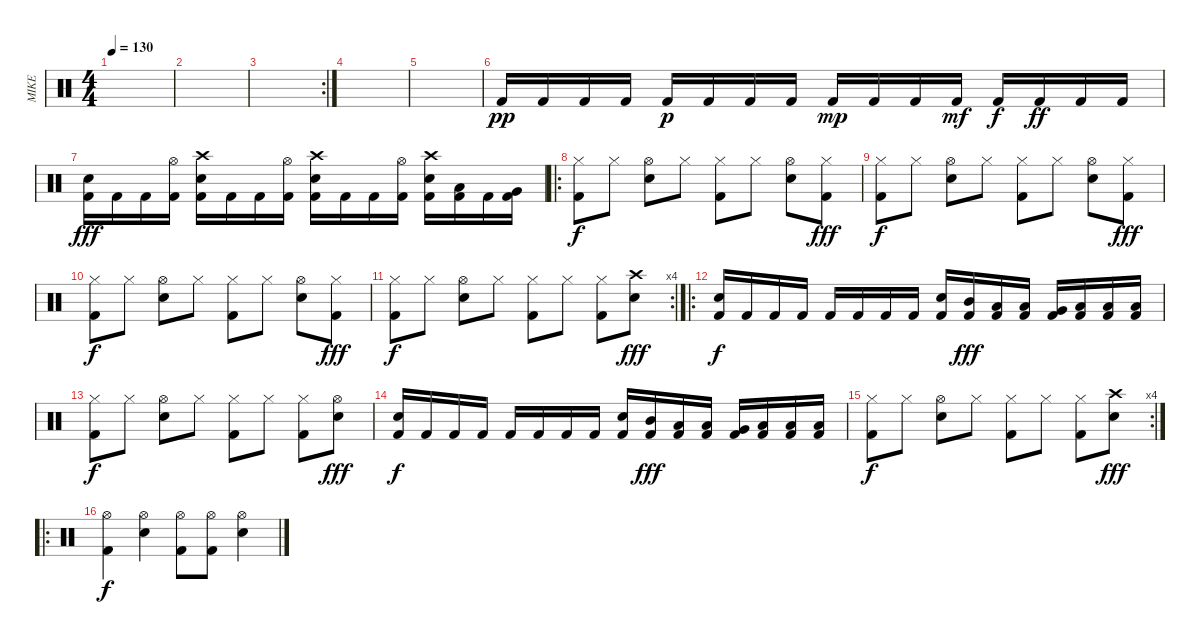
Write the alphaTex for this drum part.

\track ("MIKE" "MIKE") {instrument percussion}
\staff {score}
\articulation defaults
\ts (4 4)
\tempo 130
\clef neutral
\ks c
|
|
\rc 2
|
|
|
"Kick (hit) 2".16{dy pp} "Kick (hit) 2".16 "Kick (hit) 2".16 "Kick (hit) 2".16 "Kick (hit) 2".16{dy p} "Kick (hit) 2".16 "Kick (hit) 2".16 "Kick (hit) 2".16 "Kick (hit) 2".16{dy mp} "Kick (hit) 2".16 "Kick (hit) 2".16 "Kick (hit) 2".16{dy mf} "Kick (hit) 2".16{dy f} "Kick (hit) 2".16{dy ff} "Kick (hit) 2".16 "Kick (hit) 2".16 |
("Electric Snare (hit)" "Kick (hit) 2").16{dy fff} "Kick (hit) 2".16 "Kick (hit) 2".16 ("Hi-Hat (open)" "Kick (hit) 2").16 ("Crash high (hit)" "Electric Snare (hit)" "Kick (hit) 2").16 "Kick (hit) 2".16 "Kick (hit) 2".16 ("Hi-Hat (open)" "Kick (hit) 2").16 ("Crash high (hit)" "Electric Snare (hit)" "Kick (hit) 2").16 "Kick (hit) 2".16 "Kick (hit) 2".16 ("Hi-Hat (open)" "Kick (hit) 2").16 ("Crash high (hit)" "Electric Snare (hit)" "Kick (hit) 2").16 ("Low Tom (hit)" "Kick (hit) 2").16 "Kick (hit) 2".16 ("Very Low Tom (hit)" "Kick (hit) 2").16 |
\ro
("Hi-Hat (closed)" "Kick (hit) 2").8{dy f} "Hi-Hat (closed)".8 ("Hi-Hat (open)" "Snare (hit) 2").8 "Hi-Hat (closed)".8 ("Hi-Hat (closed)" "Kick (hit) 2").8 "Hi-Hat (closed)".8 ("Hi-Hat (open)" "Snare (hit) 2").8 ("Hi-Hat (closed)" "Kick (hit) 2").8{dy fff} |
("Hi-Hat (closed)" "Kick (hit) 2").8{dy f} "Hi-Hat (closed)".8 ("Hi-Hat (open)" "Snare (hit) 2").8 "Hi-Hat (closed)".8 ("Hi-Hat (closed)" "Kick (hit) 2").8 "Hi-Hat (closed)".8 ("Hi-Hat (open)" "Snare (hit) 2").8 ("Hi-Hat (closed)" "Kick (hit) 2").8{dy fff} |
("Hi-Hat (closed)" "Kick (hit) 2").8{dy f} "Hi-Hat (closed)".8 ("Hi-Hat (open)" "Snare (hit) 2").8 "Hi-Hat (closed)".8 ("Hi-Hat (closed)" "Kick (hit) 2").8 "Hi-Hat (closed)".8 ("Hi-Hat (open)" "Snare (hit) 2").8 ("Hi-Hat (closed)" "Kick (hit) 2").8{dy fff} |
\rc 4
("Hi-Hat (closed)" "Kick (hit) 2").8{dy f} "Hi-Hat (closed)".8 ("Hi-Hat (open)" "Snare (hit) 2").8 "Hi-Hat (closed)".8 ("Hi-Hat (closed)" "Kick (hit) 2").8 "Hi-Hat (closed)".8 ("Hi-Hat (closed)" "Kick (hit) 2").8 ("Crash high (hit)" "Snare (hit) 2").8{dy fff} |
\ro
("Snare (hit) 2" "Kick (hit) 2").16{dy f} "Kick (hit) 2".16 "Kick (hit) 2".16 "Kick (hit) 2".16 "Kick (hit) 2".16 "Kick (hit) 2".16 "Kick (hit) 2".16 "Kick (hit) 2".16 ("Snare (hit) 2" "Kick (hit) 2").16 ("Mid Tom (hit)" "Kick (hit) 2").16{dy fff} ("Low Tom (hit)" "Kick (hit) 2").16 ("Low Tom (hit)" "Kick (hit) 2").16 ("Very Low Tom (hit)" "Kick (hit) 2").16 ("Low Floor Tom (hit)" "Kick (hit) 2").16 ("Low Floor Tom (hit)" "Kick (hit) 2").16 ("Low Floor Tom (hit)" "Kick (hit) 2").16 |
("Hi-Hat (closed)" "Kick (hit) 2").8{dy f} "Hi-Hat (closed)".8 ("Hi-Hat (open)" "Snare (hit) 2").8 "Hi-Hat (closed)".8 ("Hi-Hat (closed)" "Kick (hit) 2").8 "Hi-Hat (closed)".8 ("Hi-Hat (closed)" "Kick (hit) 2").8 ("Hi-Hat (open)" "Snare (hit) 2").8{dy fff} |
("Snare (hit) 2" "Kick (hit) 2").16{dy f} "Kick (hit) 2".16 "Kick (hit) 2".16 "Kick (hit) 2".16 "Kick (hit) 2".16 "Kick (hit) 2".16 "Kick (hit) 2".16 "Kick (hit) 2".16 ("Snare (hit) 2" "Kick (hit) 2").16 ("Mid Tom (hit)" "Kick (hit) 2").16{dy fff} ("Low Tom (hit)" "Kick (hit) 2").16 ("Low Tom (hit)" "Kick (hit) 2").16 ("Very Low Tom (hit)" "Kick (hit) 2").16 ("Low Floor Tom (hit)" "Kick (hit) 2").16 ("Low Floor Tom (hit)" "Kick (hit) 2").16 ("Low Floor Tom (hit)" "Kick (hit) 2").16 |
\rc 4
("Hi-Hat (closed)" "Kick (hit) 2").8{dy f} "Hi-Hat (closed)".8 ("Hi-Hat (open)" "Snare (hit) 2").8 "Hi-Hat (closed)".8 ("Hi-Hat (closed)" "Kick (hit) 2").8 "Hi-Hat (closed)".8 ("Hi-Hat (closed)" "Kick (hit) 2").8 ("Crash high (hit)" "Snare (hit) 2").8{dy fff} |
\ro
("Hi-Hat (open)" "Kick (hit) 2").4{dy f} ("Hi-Hat (open)" "Electric Snare (hit)").4 ("Hi-Hat (open)" "Kick (hit) 2").8 ("Hi-Hat (open)" "Kick (hit) 2").8 ("Hi-Hat (open)" "Electric Snare (hit)").4
